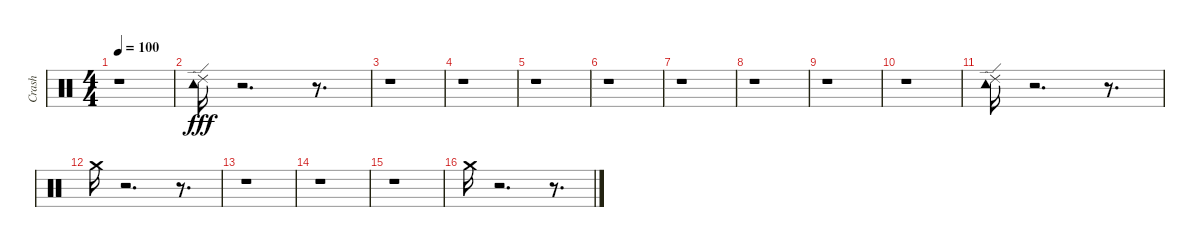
\track ("Crash" "Crash") {instrument percussion}
\staff {score}
\articulation defaults
\ts (4 4)
\tempo 100
\clef neutral
\ks c
r.1{dy fff} |
("Ride (edge) 2" "Tambourine (hit)").16 r.2{d} r.8{d} |
r.1 |
r.1 |
r.1 |
r.1 |
r.1 |
r.1 |
r.1 |
r.1 |
("Ride (edge) 2" "Tambourine (hit)").16 r.2{d} r.8{d} |
"Crash medium (hit)".16 r.2{d} r.8{d} |
r.1 |
r.1 |
r.1 |
"Crash medium (hit)".16 r.2{d} r.8{d}
